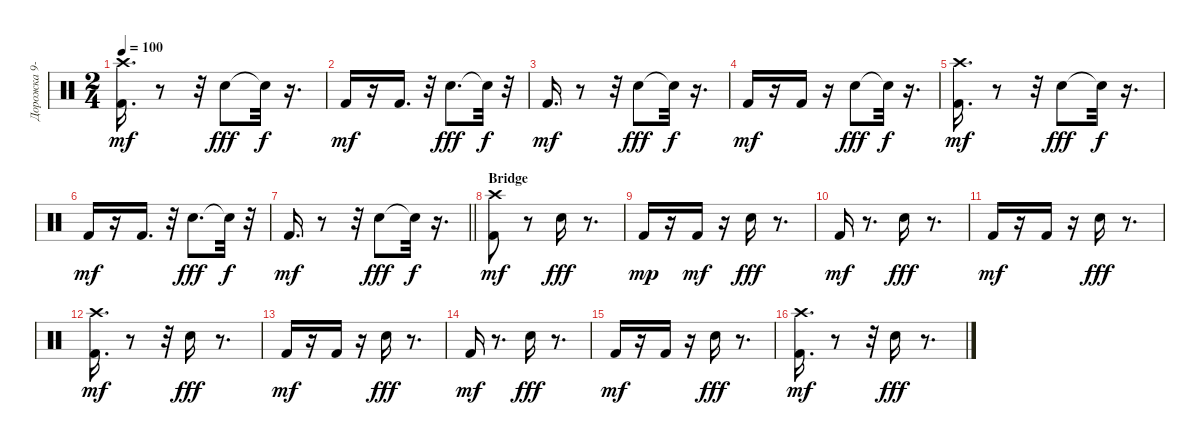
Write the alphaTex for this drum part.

\track ("Дорожка 9-10" "Дорожка 9-") {instrument percussion}
\staff {score}
\articulation defaults
\ts (2 4)
\tempo 100
\clef neutral
\ks c
("Kick (hit) 2" "Crash high (hit)").16{d dy mf} r.8 r.32 "Snare (hit) 2".8{dy fff} "Snare (hit)"{t}.32{dy f} r.16{d} |
"Kick (hit) 2".16{dy mf} r.16 "Kick (hit) 2".16{d} r.32 "Snare (hit) 2".8{d dy fff} "Snare (hit)"{t}.32{dy f} r.32 |
"Kick (hit) 2".16{d dy mf} r.8 r.32 "Snare (hit) 2".8{dy fff} "Snare (hit)"{t}.32{dy f} r.16{d} |
"Kick (hit) 2".16{dy mf} r.16 "Kick (hit) 2".16 r.16 "Snare (hit) 2".8{dy fff} "Snare (hit)"{t}.32{dy f} r.16{d} |
("Kick (hit) 2" "Crash high (hit)").16{d dy mf} r.8 r.32 "Snare (hit) 2".8{dy fff} "Snare (hit)"{t}.32{dy f} r.16{d} |
"Kick (hit) 2".16{dy mf} r.16 "Kick (hit) 2".16{d} r.32 "Snare (hit) 2".8{d dy fff} "Snare (hit)"{t}.32{dy f} r.32 |
\barLineRight lightlight "Kick (hit) 2".16{d dy mf}
r.8 r.32 "Snare (hit) 2".8{dy fff} "Snare (hit)"{t}.32{dy f} r.16{d} |
\section ("" "Bridge")
("Kick (hit) 2" "Crash high (hit)").8{dy mf} r.8 "Snare (hit) 2".16{dy fff} r.8{d} |
"Kick (hit) 2".16{dy mp} r.16 "Kick (hit) 2".16{dy mf} r.16 "Snare (hit) 2".16{dy fff} r.8{d} |
"Kick (hit) 2".16{dy mf} r.8{d} "Snare (hit) 2".16{dy fff} r.8{d} |
"Kick (hit) 2".16{dy mf} r.16 "Kick (hit) 2".16 r.16 "Snare (hit) 2".16{dy fff} r.8{d} |
("Kick (hit) 2" "Crash high (hit)").16{d dy mf} r.8 r.32 "Snare (hit) 2".16{dy fff} r.8{d} |
"Kick (hit) 2".16{dy mf} r.16 "Kick (hit) 2".16 r.16 "Snare (hit) 2".16{dy fff} r.8{d} |
"Kick (hit) 2".16{dy mf} r.8{d} "Snare (hit) 2".16{dy fff} r.8{d} |
"Kick (hit) 2".16{dy mf} r.16 "Kick (hit) 2".16 r.16 "Snare (hit) 2".16{dy fff} r.8{d} |
("Kick (hit) 2" "Crash high (hit)").16{d dy mf} r.8 r.32 "Snare (hit) 2".16{dy fff} r.8{d}
